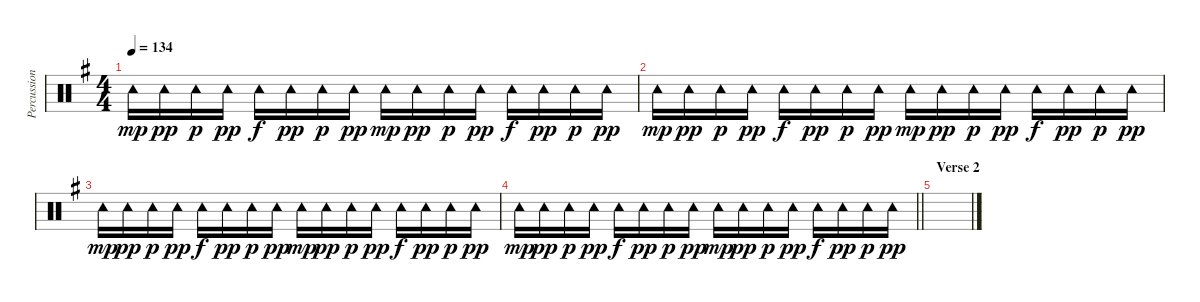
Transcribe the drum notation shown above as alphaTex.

\track ("Percussion" "Percussion") {instrument percussion}
\staff {score}
\articulation defaults
\ts (4 4)
\tempo 134
\clef neutral
\ks eminor "Tambourine (hit)".16{dy mp} "Tambourine (hit)".16{dy pp} "Tambourine (hit)".16{dy p} "Tambourine (hit)".16{dy pp} "Tambourine (hit)".16{dy f} "Tambourine (hit)".16{dy pp} "Tambourine (hit)".16{dy p} "Tambourine (hit)".16{dy pp} "Tambourine (hit)".16{dy mp} "Tambourine (hit)".16{dy pp} "Tambourine (hit)".16{dy p} "Tambourine (hit)".16{dy pp} "Tambourine (hit)".16{dy f} "Tambourine (hit)".16{dy pp} "Tambourine (hit)".16{dy p} "Tambourine (hit)".16{dy pp}
|
"Tambourine (hit)".16{dy mp} "Tambourine (hit)".16{dy pp} "Tambourine (hit)".16{dy p} "Tambourine (hit)".16{dy pp} "Tambourine (hit)".16{dy f} "Tambourine (hit)".16{dy pp} "Tambourine (hit)".16{dy p} "Tambourine (hit)".16{dy pp} "Tambourine (hit)".16{dy mp} "Tambourine (hit)".16{dy pp} "Tambourine (hit)".16{dy p} "Tambourine (hit)".16{dy pp} "Tambourine (hit)".16{dy f} "Tambourine (hit)".16{dy pp} "Tambourine (hit)".16{dy p} "Tambourine (hit)".16{dy pp} |
"Tambourine (hit)".16{dy mp} "Tambourine (hit)".16{dy pp} "Tambourine (hit)".16{dy p} "Tambourine (hit)".16{dy pp} "Tambourine (hit)".16{dy f} "Tambourine (hit)".16{dy pp} "Tambourine (hit)".16{dy p} "Tambourine (hit)".16{dy pp} "Tambourine (hit)".16{dy mp} "Tambourine (hit)".16{dy pp} "Tambourine (hit)".16{dy p} "Tambourine (hit)".16{dy pp} "Tambourine (hit)".16{dy f} "Tambourine (hit)".16{dy pp} "Tambourine (hit)".16{dy p} "Tambourine (hit)".16{dy pp} |
\barLineRight lightlight "Tambourine (hit)".16{dy mp} "Tambourine (hit)".16{dy pp} "Tambourine (hit)".16{dy p} "Tambourine (hit)".16{dy pp} "Tambourine (hit)".16{dy f} "Tambourine (hit)".16{dy pp} "Tambourine (hit)".16{dy p} "Tambourine (hit)".16{dy pp} "Tambourine (hit)".16{dy mp} "Tambourine (hit)".16{dy pp} "Tambourine (hit)".16{dy p} "Tambourine (hit)".16{dy pp} "Tambourine (hit)".16{dy f} "Tambourine (hit)".16{dy pp} "Tambourine (hit)".16{dy p} "Tambourine (hit)".16{dy pp}
|
\section ("" "Verse 2")
